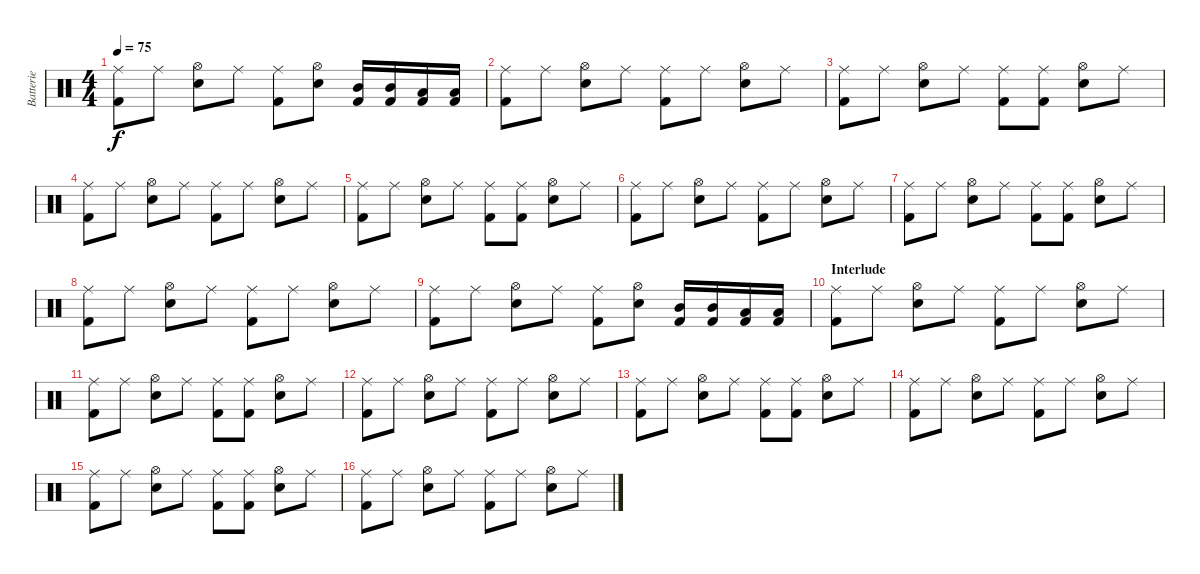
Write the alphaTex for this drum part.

\track ("Batterie" "Batterie") {instrument percussion}
\staff {score}
\articulation defaults
\ts (4 4)
\tempo 75
\clef neutral
\ks c
("Ride (middle)" "Kick (hit) 2").8{dy f} "Ride (middle)".8 ("Hi-Hat (open)" "Snare (hit) 2").8 "Ride (middle)".8 ("Ride (middle)" "Kick (hit) 2").8 ("Hi-Hat (open)" "Snare (hit) 2").8 ("Mid Tom (hit)" "Kick (hit) 2").16 ("Mid Tom (hit)" "Kick (hit) 2").16 ("Low Tom (hit)" "Kick (hit) 2").16 ("Low Tom (hit)" "Kick (hit) 2").16 |
("Ride (middle)" "Kick (hit) 2").8 "Ride (middle)".8 ("Hi-Hat (open)" "Snare (hit) 2").8 "Ride (middle)".8 ("Ride (middle)" "Kick (hit) 2").8 "Ride (middle)".8 ("Hi-Hat (open)" "Snare (hit) 2").8 "Ride (middle)".8 |
("Ride (middle)" "Kick (hit) 2").8 "Ride (middle)".8 ("Hi-Hat (open)" "Snare (hit) 2").8 "Ride (middle)".8 ("Ride (middle)" "Kick (hit) 2").8 ("Ride (middle)" "Kick (hit) 2").8 ("Hi-Hat (open)" "Snare (hit) 2").8 "Ride (middle)".8 |
("Ride (middle)" "Kick (hit) 2").8 "Ride (middle)".8 ("Hi-Hat (open)" "Snare (hit) 2").8 "Ride (middle)".8 ("Ride (middle)" "Kick (hit) 2").8 "Ride (middle)".8 ("Hi-Hat (open)" "Snare (hit) 2").8 "Ride (middle)".8 |
("Ride (middle)" "Kick (hit) 2").8 "Ride (middle)".8 ("Hi-Hat (open)" "Snare (hit) 2").8 "Ride (middle)".8 ("Ride (middle)" "Kick (hit) 2").8 ("Ride (middle)" "Kick (hit) 2").8 ("Hi-Hat (open)" "Snare (hit) 2").8 "Ride (middle)".8 |
("Ride (middle)" "Kick (hit) 2").8 "Ride (middle)".8 ("Hi-Hat (open)" "Snare (hit) 2").8 "Ride (middle)".8 ("Ride (middle)" "Kick (hit) 2").8 "Ride (middle)".8 ("Hi-Hat (open)" "Snare (hit) 2").8 "Ride (middle)".8 |
("Ride (middle)" "Kick (hit) 2").8 "Ride (middle)".8 ("Hi-Hat (open)" "Snare (hit) 2").8 "Ride (middle)".8 ("Ride (middle)" "Kick (hit) 2").8 ("Ride (middle)" "Kick (hit) 2").8 ("Hi-Hat (open)" "Snare (hit) 2").8 "Ride (middle)".8 |
("Ride (middle)" "Kick (hit) 2").8 "Ride (middle)".8 ("Hi-Hat (open)" "Snare (hit) 2").8 "Ride (middle)".8 ("Ride (middle)" "Kick (hit) 2").8 "Ride (middle)".8 ("Hi-Hat (open)" "Snare (hit) 2").8 "Ride (middle)".8 |
("Ride (middle)" "Kick (hit) 2").8 "Ride (middle)".8 ("Hi-Hat (open)" "Snare (hit) 2").8 "Ride (middle)".8 ("Ride (middle)" "Kick (hit) 2").8 ("Hi-Hat (open)" "Snare (hit) 2").8 ("Mid Tom (hit)" "Kick (hit) 2").16 ("Mid Tom (hit)" "Kick (hit) 2").16 ("Low Tom (hit)" "Kick (hit) 2").16 ("Low Tom (hit)" "Kick (hit) 2").16 |
\section ("" "Interlude")
("Ride (middle)" "Kick (hit) 2").8 "Ride (middle)".8 ("Hi-Hat (open)" "Snare (hit) 2").8 "Ride (middle)".8 ("Ride (middle)" "Kick (hit) 2").8 "Ride (middle)".8 ("Hi-Hat (open)" "Snare (hit) 2").8 "Ride (middle)".8 |
("Ride (middle)" "Kick (hit) 2").8 "Ride (middle)".8 ("Hi-Hat (open)" "Snare (hit) 2").8 "Ride (middle)".8 ("Ride (middle)" "Kick (hit) 2").8 ("Ride (middle)" "Kick (hit) 2").8 ("Hi-Hat (open)" "Snare (hit) 2").8 "Ride (middle)".8 |
("Ride (middle)" "Kick (hit) 2").8 "Ride (middle)".8 ("Hi-Hat (open)" "Snare (hit) 2").8 "Ride (middle)".8 ("Ride (middle)" "Kick (hit) 2").8 "Ride (middle)".8 ("Hi-Hat (open)" "Snare (hit) 2").8 "Ride (middle)".8 |
("Ride (middle)" "Kick (hit) 2").8 "Ride (middle)".8 ("Hi-Hat (open)" "Snare (hit) 2").8 "Ride (middle)".8 ("Ride (middle)" "Kick (hit) 2").8 ("Ride (middle)" "Kick (hit) 2").8 ("Hi-Hat (open)" "Snare (hit) 2").8 "Ride (middle)".8 |
("Ride (middle)" "Kick (hit) 2").8 "Ride (middle)".8 ("Hi-Hat (open)" "Snare (hit) 2").8 "Ride (middle)".8 ("Ride (middle)" "Kick (hit) 2").8 "Ride (middle)".8 ("Hi-Hat (open)" "Snare (hit) 2").8 "Ride (middle)".8 |
("Ride (middle)" "Kick (hit) 2").8 "Ride (middle)".8 ("Hi-Hat (open)" "Snare (hit) 2").8 "Ride (middle)".8 ("Ride (middle)" "Kick (hit) 2").8 ("Ride (middle)" "Kick (hit) 2").8 ("Hi-Hat (open)" "Snare (hit) 2").8 "Ride (middle)".8 |
("Ride (middle)" "Kick (hit) 2").8 "Ride (middle)".8 ("Hi-Hat (open)" "Snare (hit) 2").8 "Ride (middle)".8 ("Ride (middle)" "Kick (hit) 2").8 "Ride (middle)".8 ("Hi-Hat (open)" "Snare (hit) 2").8 "Ride (middle)".8
